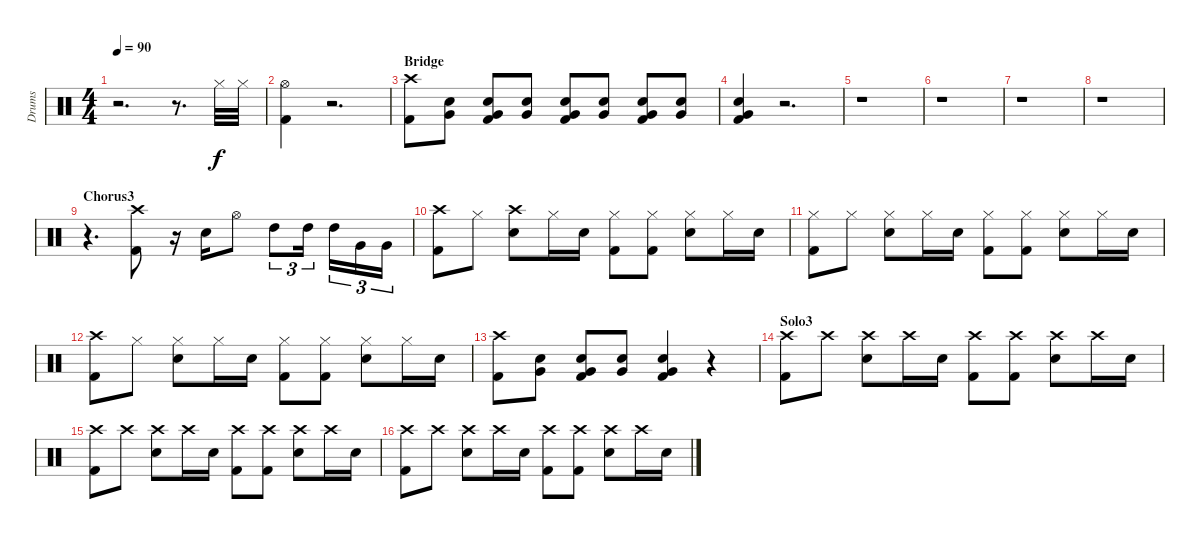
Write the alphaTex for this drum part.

\track ("Drums" "Drums") {instrument percussion}
\staff {score}
\articulation defaults
\ts (4 4)
\tempo 90
\clef neutral
\ks c
r.2{d dy f} r.8{d} "Hi-Hat (closed)".32 "Hi-Hat (closed)".32 |
("Hi-Hat (open)" "Kick (hit) 2").4 r.2{d} |
\section ("" "Bridge")
("Crash high (hit)" "Kick (hit) 2").8 ("Snare (hit) 2" "Very Low Tom (hit)").8 ("Snare (hit) 2" "Very Low Tom (hit)" "Kick (hit) 2").8 ("Snare (hit) 2" "Very Low Tom (hit)").8 ("Snare (hit) 2" "Very Low Tom (hit)" "Kick (hit) 2").8 ("Snare (hit) 2" "Very Low Tom (hit)").8 ("Snare (hit) 2" "Very Low Tom (hit)" "Kick (hit) 2").8 ("Snare (hit) 2" "Very Low Tom (hit)").8 |
("Snare (hit) 2" "Very Low Tom (hit)" "Kick (hit) 2").4 r.2{d} |
r.1 |
r.1 |
r.1 |
r.1 |
\section ("" "Chorus3")
r.4{d} ("Crash high (hit)" "Kick (hit) 2").8 r.16 "Snare (hit) 2".16 "Hi-Hat (open)".8 "High Tom (hit)".8{tu (3 2)} "High Tom (hit)".16{tu (3 2)} "High Tom (hit)".16{tu (3 2)} "Very Low Tom (hit)".16{tu (3 2)} "Very Low Tom (hit)".16{tu (3 2)} |
("Crash high (hit)" "Kick (hit) 2").8 "Hi-Hat (closed)".8 ("Crash high (hit)" "Snare (hit) 2").8 "Hi-Hat (closed)".16 "Snare (hit) 2".16 ("Hi-Hat (closed)" "Kick (hit) 2").8 ("Hi-Hat (closed)" "Kick (hit) 2").8 ("Hi-Hat (closed)" "Snare (hit) 2").8 "Hi-Hat (closed)".16 "Snare (hit) 2".16 |
("Hi-Hat (closed)" "Kick (hit) 2").8 "Hi-Hat (closed)".8 ("Hi-Hat (closed)" "Snare (hit) 2").8 "Hi-Hat (closed)".16 "Snare (hit) 2".16 ("Hi-Hat (closed)" "Kick (hit) 2").8 ("Hi-Hat (closed)" "Kick (hit) 2").8 ("Hi-Hat (closed)" "Snare (hit) 2").8 "Hi-Hat (closed)".16 "Snare (hit) 2".16 |
("Crash high (hit)" "Kick (hit) 2").8 "Hi-Hat (closed)".8 ("Hi-Hat (closed)" "Snare (hit) 2").8 "Hi-Hat (closed)".16 "Snare (hit) 2".16 ("Hi-Hat (closed)" "Kick (hit) 2").8 ("Hi-Hat (closed)" "Kick (hit) 2").8 ("Hi-Hat (closed)" "Snare (hit) 2").8 "Hi-Hat (closed)".16 "Snare (hit) 2".16 |
("Crash high (hit)" "Kick (hit) 2").8 ("Snare (hit) 2" "Very Low Tom (hit)").8 ("Snare (hit) 2" "Very Low Tom (hit)" "Kick (hit) 2").8 ("Snare (hit) 2" "Very Low Tom (hit)").8 ("Snare (hit) 2" "Very Low Tom (hit)" "Kick (hit) 2").4 r.4 |
\section ("" "Solo3")
("Crash high (hit)" "Kick (hit) 2").8 "Crash high (hit)".8 ("Crash high (hit)" "Snare (hit) 2").8 "Crash high (hit)".16 "Snare (hit) 2".16 ("Crash high (hit)" "Kick (hit) 2").8 ("Crash high (hit)" "Kick (hit) 2").8 ("Crash high (hit)" "Snare (hit) 2").8 "Crash high (hit)".16 "Snare (hit) 2".16 |
("Crash high (hit)" "Kick (hit) 2").8 "Crash high (hit)".8 ("Crash high (hit)" "Snare (hit) 2").8 "Crash high (hit)".16 "Snare (hit) 2".16 ("Crash high (hit)" "Kick (hit) 2").8 ("Crash high (hit)" "Kick (hit) 2").8 ("Crash high (hit)" "Snare (hit) 2").8 "Crash high (hit)".16 "Snare (hit) 2".16 |
("Crash high (hit)" "Kick (hit) 2").8 "Crash high (hit)".8 ("Crash high (hit)" "Snare (hit) 2").8 "Crash high (hit)".16 "Snare (hit) 2".16 ("Crash high (hit)" "Kick (hit) 2").8 ("Crash high (hit)" "Kick (hit) 2").8 ("Crash high (hit)" "Snare (hit) 2").8 "Crash high (hit)".16 "Snare (hit) 2".16
